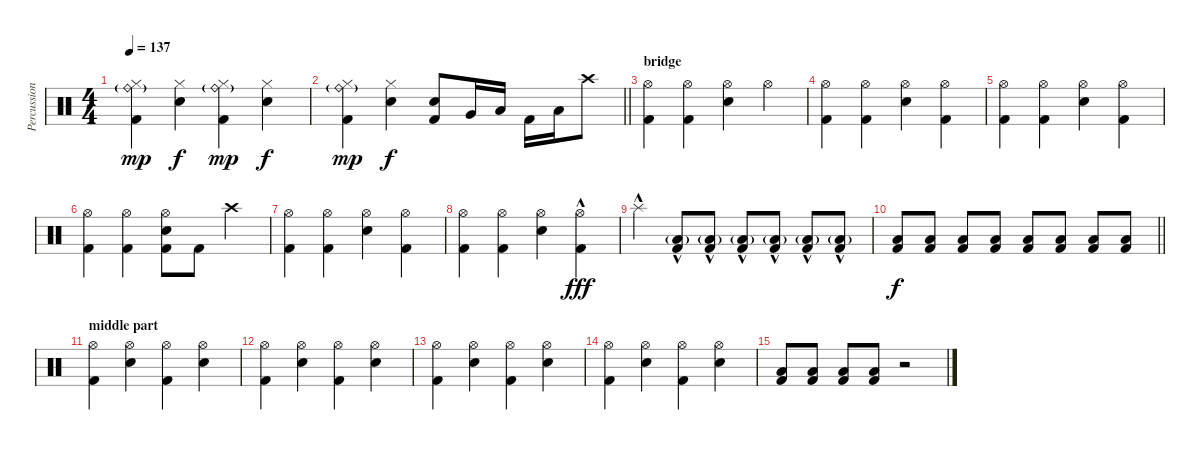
\track ("Percussion" "Percussion") {instrument percussion}
\staff {score}
\articulation defaults
\ts (4 4)
\tempo 137
\clef neutral
\ks c
("Hi-Hat (closed)" "Ride (bell)"{g} "Kick (hit) 2").4{dy mp} ("Hi-Hat (closed)" "Snare (hit) 2").4{dy f} ("Hi-Hat (closed)" "Ride (bell)"{g} "Kick (hit) 2").4{dy mp} ("Hi-Hat (closed)" "Snare (hit) 2").4{dy f} |
\barLineRight lightlight
("Hi-Hat (closed)" "Ride (bell)"{g} "Kick (hit) 2").4{dy mp} ("Hi-Hat (closed)" "Snare (hit) 2").4{dy f} ("Snare (hit) 2" "Kick (hit) 2").8 "Very Low Tom (hit)".16 "Low Floor Tom (hit)".16 "Kick (hit) 2".16 "Low Floor Tom (hit)".16 "Crash high (hit)".8 |
\section ("" "bridge")
("Hi-Hat (open)" "Kick (hit) 2").4 ("Hi-Hat (open)" "Kick (hit) 2").4 ("Hi-Hat (open)" "Snare (hit) 2").4 "Hi-Hat (open)".4 |
("Hi-Hat (open)" "Kick (hit) 2").4 ("Hi-Hat (open)" "Kick (hit) 2").4 ("Hi-Hat (open)" "Snare (hit) 2").4 ("Hi-Hat (open)" "Kick (hit) 2").4 |
("Hi-Hat (open)" "Kick (hit) 2").4 ("Hi-Hat (open)" "Kick (hit) 2").4 ("Hi-Hat (open)" "Snare (hit) 2").4 ("Hi-Hat (open)" "Kick (hit) 2").4 |
("Hi-Hat (open)" "Kick (hit) 2").4 ("Hi-Hat (open)" "Kick (hit) 2").4 ("Hi-Hat (open)" "Snare (hit) 2" "Kick (hit) 2").8 "Kick (hit) 2".8 "Crash high (hit)".4 |
("Hi-Hat (open)" "Kick (hit) 2").4 ("Hi-Hat (open)" "Kick (hit) 2").4 ("Hi-Hat (open)" "Snare (hit) 2").4 ("Hi-Hat (open)" "Kick (hit) 2").4 |
("Hi-Hat (open)" "Kick (hit) 2").4 ("Hi-Hat (open)" "Kick (hit) 2").4 ("Hi-Hat (open)" "Snare (hit) 2").4 ("Hi-Hat (open)"{hac} "Kick (hit) 2").4{dy fff} |
"Splash (hit)"{hac}.4 ("Low Floor Tom (hit)"{g} "Kick (hit) 2"{hac}).8 ("Low Floor Tom (hit)"{g} "Kick (hit) 2"{hac}).8 ("Low Floor Tom (hit)"{g} "Kick (hit) 2"{hac}).8 ("Low Floor Tom (hit)"{g} "Kick (hit) 2"{hac}).8 ("Low Floor Tom (hit)"{g} "Kick (hit) 2"{hac}).8 ("Low Floor Tom (hit)"{g} "Kick (hit) 2"{hac}).8 |
\barLineRight lightlight
("Low Floor Tom (hit)" "Kick (hit) 2").8{dy f volume 16} ("Low Floor Tom (hit)" "Kick (hit) 2").8 ("Low Floor Tom (hit)" "Kick (hit) 2").8 ("Low Floor Tom (hit)" "Kick (hit) 2").8 ("Low Floor Tom (hit)" "Kick (hit) 2").8 ("Low Floor Tom (hit)" "Kick (hit) 2").8 ("Low Floor Tom (hit)" "Kick (hit) 2").8 ("Low Floor Tom (hit)" "Kick (hit) 2").8 |
\section ("" "middle part")
("Hi-Hat (open)" "Kick (hit) 2").4 ("Hi-Hat (open)" "Snare (hit) 2").4 ("Hi-Hat (open)" "Kick (hit) 2").4 ("Hi-Hat (open)" "Snare (hit) 2").4 |
("Hi-Hat (open)" "Kick (hit) 2").4 ("Hi-Hat (open)" "Snare (hit) 2").4 ("Hi-Hat (open)" "Kick (hit) 2").4 ("Hi-Hat (open)" "Snare (hit) 2").4 |
("Hi-Hat (open)" "Kick (hit) 2").4 ("Hi-Hat (open)" "Snare (hit) 2").4 ("Hi-Hat (open)" "Kick (hit) 2").4 ("Hi-Hat (open)" "Snare (hit) 2").4 |
("Hi-Hat (open)" "Kick (hit) 2").4 ("Hi-Hat (open)" "Snare (hit) 2").4 ("Hi-Hat (open)" "Kick (hit) 2").4 ("Hi-Hat (open)" "Snare (hit) 2").4 |
("Low Floor Tom (hit)" "Kick (hit) 2").8 ("Low Floor Tom (hit)" "Kick (hit) 2").8 ("Low Floor Tom (hit)" "Kick (hit) 2").8 ("Low Floor Tom (hit)" "Kick (hit) 2").8 r.2
